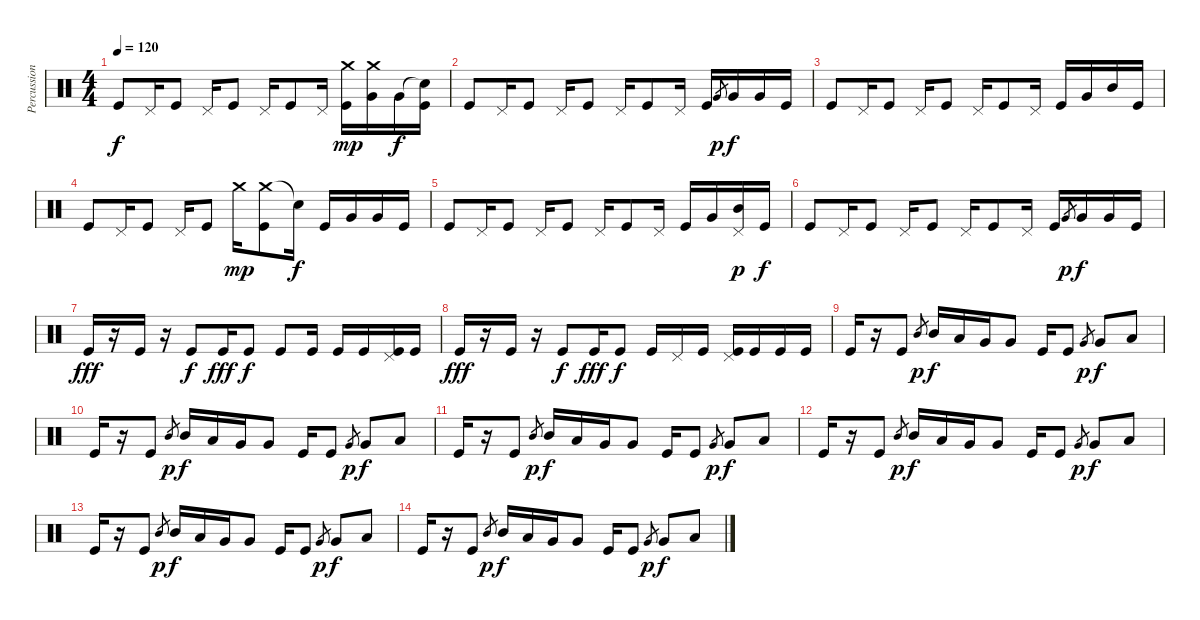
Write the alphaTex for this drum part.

\track ("Percussion" "Percussion") {instrument percussion}
\staff {score}
\articulation defaults
\ts (4 4)
\tempo 120
\clef neutral
\ks c "Kick (hit)".8{dy f} "Pedal Hi-Hat (hit)".16 "Kick (hit)".8 "Pedal Hi-Hat (hit)".16 "Kick (hit)".8 "Pedal Hi-Hat (hit)".16 "Kick (hit)".8 "Pedal Hi-Hat (hit)".16
("Crash medium (hit)" "Kick (hit)").16{dy mp} ("Crash medium (hit)" "Very Low Tom (hit)").16 "Very Low Tom (hit)".16{dy f} ("Snare (hit)"{t} "Kick (hit)").16 |
"Kick (hit)".8 "Pedal Hi-Hat (hit)".16 "Kick (hit)".8 "Pedal Hi-Hat (hit)".16 "Kick (hit)".8 "Pedal Hi-Hat (hit)".16 "Kick (hit)".8 "Pedal Hi-Hat (hit)".16 "Kick (hit)".16 "Very Low Tom (hit)".8{gr dy p} "Very Low Tom (hit)".16{dy f} "Very Low Tom (hit)".16 "Kick (hit)".16 |
"Kick (hit)".8 "Pedal Hi-Hat (hit)".16 "Kick (hit)".8 "Pedal Hi-Hat (hit)".16 "Kick (hit)".8 "Pedal Hi-Hat (hit)".16 "Kick (hit)".8 "Pedal Hi-Hat (hit)".16 "Kick (hit)".16 "Very Low Tom (hit)".16 "Mid Tom (hit)".16 "Kick (hit)".16 |
"Kick (hit)".8 "Pedal Hi-Hat (hit)".16 "Kick (hit)".8 "Pedal Hi-Hat (hit)".16 "Kick (hit)".8 "Crash medium (hit)".16{dy mp} ("Crash medium (hit)" "Kick (hit)").8 "Snare (hit)"{t}.16{dy f} "Kick (hit)".16 "Very Low Tom (hit)".16 "Very Low Tom (hit)".16 "Kick (hit)".16 |
"Kick (hit)".8 "Pedal Hi-Hat (hit)".16 "Kick (hit)".8 "Pedal Hi-Hat (hit)".16 "Kick (hit)".8 "Pedal Hi-Hat (hit)".16 "Kick (hit)".8 "Pedal Hi-Hat (hit)".16 "Kick (hit)".16 "Very Low Tom (hit)".16 ("Pedal Hi-Hat (hit)" "Mid Tom (hit)").16{dy p} "Kick (hit)".16{dy f} |
"Kick (hit)".8 "Pedal Hi-Hat (hit)".16 "Kick (hit)".8 "Pedal Hi-Hat (hit)".16 "Kick (hit)".8 "Pedal Hi-Hat (hit)".16 "Kick (hit)".8 "Pedal Hi-Hat (hit)".16 "Kick (hit)".16 "Very Low Tom (hit)".8{gr dy p} "Very Low Tom (hit)".16{dy f} "Very Low Tom (hit)".16 "Kick (hit)".16 |
"Kick (hit)".16{dy fff} r.16 "Kick (hit)".16 r.16 "Kick (hit)".8{dy f} "Kick (hit)".16{dy fff} "Kick (hit)".8{dy f} "Kick (hit)".8 "Kick (hit)".16 "Kick (hit)".16 "Kick (hit)".16 ("Pedal Hi-Hat (hit)" "Kick (hit)").16 "Kick (hit)".16 |
"Kick (hit)".16{dy fff} r.16 "Kick (hit)".16 r.16 "Kick (hit)".8{dy f} "Kick (hit)".16{dy fff} "Kick (hit)".8{dy f} "Kick (hit)".16 "Pedal Hi-Hat (hit)".16 "Kick (hit)".16 ("Pedal Hi-Hat (hit)" "Kick (hit)").16 "Kick (hit)".16 "Kick (hit)".16 "Kick (hit)".16 |
"Kick (hit)".16 r.16 "Kick (hit)".8 "Mid Tom (hit)".8{gr dy p} "Mid Tom (hit)".16{dy f} "Low Tom (hit)".16 "Very Low Tom (hit)".16 "Very Low Tom (hit)".8 "Kick (hit)".16 "Kick (hit)".8 "Very Low Tom (hit)".8{gr dy p} "Very Low Tom (hit)".8{dy f} "Low Tom (hit)".8 |
"Kick (hit)".16 r.16 "Kick (hit)".8 "Mid Tom (hit)".8{gr dy p} "Mid Tom (hit)".16{dy f} "Low Tom (hit)".16 "Very Low Tom (hit)".16 "Very Low Tom (hit)".8 "Kick (hit)".16 "Kick (hit)".8 "Very Low Tom (hit)".8{gr dy p} "Very Low Tom (hit)".8{dy f} "Low Tom (hit)".8 |
"Kick (hit)".16 r.16 "Kick (hit)".8 "Mid Tom (hit)".8{gr dy p} "Mid Tom (hit)".16{dy f} "Low Tom (hit)".16 "Very Low Tom (hit)".16 "Very Low Tom (hit)".8 "Kick (hit)".16 "Kick (hit)".8 "Very Low Tom (hit)".8{gr dy p} "Very Low Tom (hit)".8{dy f} "Low Tom (hit)".8 |
"Kick (hit)".16 r.16 "Kick (hit)".8 "Mid Tom (hit)".8{gr dy p} "Mid Tom (hit)".16{dy f} "Low Tom (hit)".16 "Very Low Tom (hit)".16 "Very Low Tom (hit)".8 "Kick (hit)".16 "Kick (hit)".8 "Very Low Tom (hit)".8{gr dy p} "Very Low Tom (hit)".8{dy f} "Low Tom (hit)".8 |
"Kick (hit)".16{volume 6} r.16 "Kick (hit)".8 "Mid Tom (hit)".8{gr dy p} "Mid Tom (hit)".16{dy f} "Low Tom (hit)".16 "Very Low Tom (hit)".16 "Very Low Tom (hit)".8 "Kick (hit)".16 "Kick (hit)".8 "Very Low Tom (hit)".8{gr dy p} "Very Low Tom (hit)".8{dy f} "Low Tom (hit)".8 |
"Kick (hit)".16 r.16 "Kick (hit)".8 "Mid Tom (hit)".8{gr dy p} "Mid Tom (hit)".16{dy f} "Low Tom (hit)".16 "Very Low Tom (hit)".16 "Very Low Tom (hit)".8 "Kick (hit)".16 "Kick (hit)".8 "Very Low Tom (hit)".8{gr dy p} "Very Low Tom (hit)".8{dy f} "Low Tom (hit)".8
